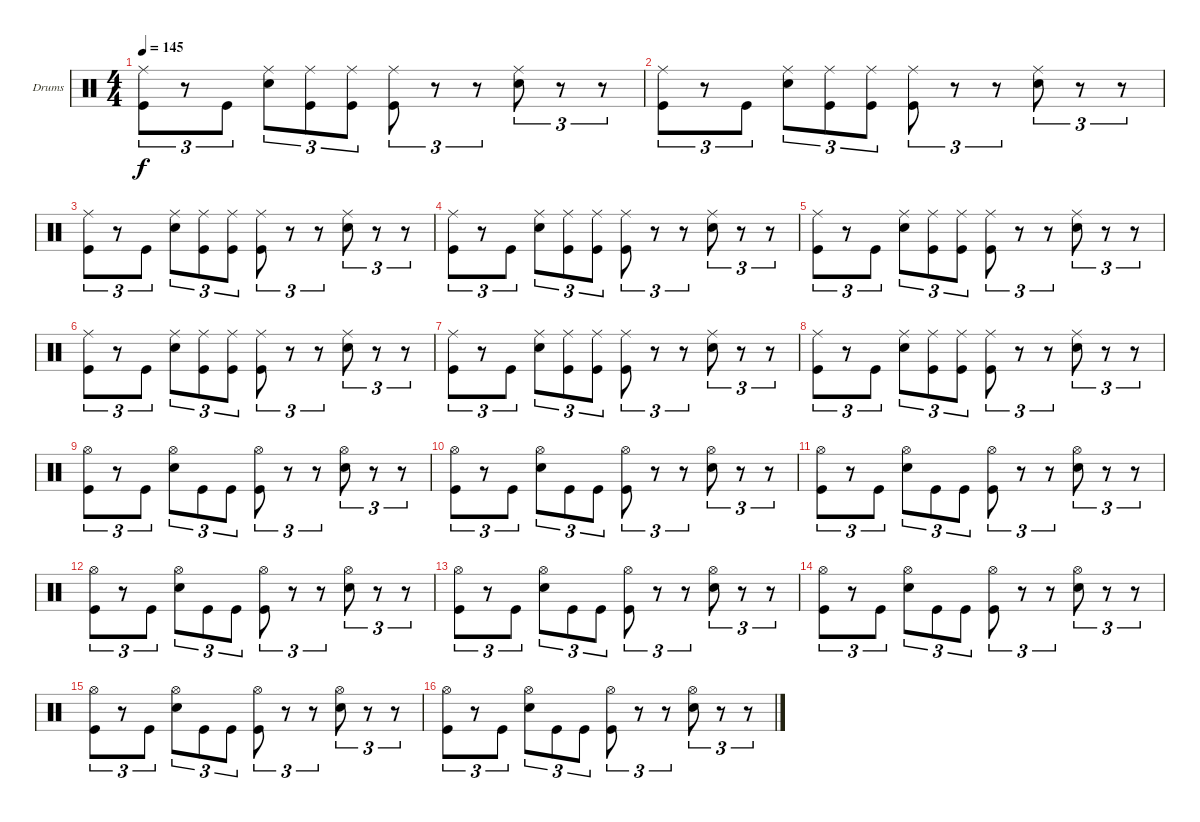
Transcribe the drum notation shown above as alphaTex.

\bracketExtendMode groupsimilarinstruments
\firstSystemTrackNameOrientation horizontal
\otherSystemsTrackNameOrientation horizontal
\track ("FREDRIK ANDERSSON" "Drums") {instrument percussion}
\staff {score}
\articulation defaults
\ts (4 4)
\tempo 145
\clef neutral
\ks c
("Ride (middle)" "Kick (hit)").8{tu (3 2) dy f} r.8{tu (3 2)} "Kick (hit)".8{tu (3 2)} ("Ride (middle)" "Snare (hit) 2").8{tu (3 2)} ("Ride (middle)" "Kick (hit)").8{tu (3 2)} ("Ride (middle)" "Kick (hit)").8{tu (3 2)} ("Ride (middle)" "Kick (hit)").8{tu (3 2)} r.8{tu (3 2)} r.8{tu (3 2)} ("Ride (middle)" "Snare (hit) 2").8{tu (3 2)} r.8{tu (3 2)} r.8{tu (3 2)} |
("Ride (middle)" "Kick (hit)").8{tu (3 2)} r.8{tu (3 2)} "Kick (hit)".8{tu (3 2)} ("Ride (middle)" "Snare (hit) 2").8{tu (3 2)} ("Ride (middle)" "Kick (hit)").8{tu (3 2)} ("Ride (middle)" "Kick (hit)").8{tu (3 2)} ("Ride (middle)" "Kick (hit)").8{tu (3 2)} r.8{tu (3 2)} r.8{tu (3 2)} ("Ride (middle)" "Snare (hit) 2").8{tu (3 2)} r.8{tu (3 2)} r.8{tu (3 2)} |
("Ride (middle)" "Kick (hit)").8{tu (3 2)} r.8{tu (3 2)} "Kick (hit)".8{tu (3 2)} ("Ride (middle)" "Snare (hit) 2").8{tu (3 2)} ("Ride (middle)" "Kick (hit)").8{tu (3 2)} ("Ride (middle)" "Kick (hit)").8{tu (3 2)} ("Ride (middle)" "Kick (hit)").8{tu (3 2)} r.8{tu (3 2)} r.8{tu (3 2)} ("Ride (middle)" "Snare (hit) 2").8{tu (3 2)} r.8{tu (3 2)} r.8{tu (3 2)} |
("Ride (middle)" "Kick (hit)").8{tu (3 2)} r.8{tu (3 2)} "Kick (hit)".8{tu (3 2)} ("Ride (middle)" "Snare (hit) 2").8{tu (3 2)} ("Ride (middle)" "Kick (hit)").8{tu (3 2)} ("Ride (middle)" "Kick (hit)").8{tu (3 2)} ("Ride (middle)" "Kick (hit)").8{tu (3 2)} r.8{tu (3 2)} r.8{tu (3 2)} ("Ride (middle)" "Snare (hit) 2").8{tu (3 2)} r.8{tu (3 2)} r.8{tu (3 2)} |
("Ride (middle)" "Kick (hit)").8{tu (3 2)} r.8{tu (3 2)} "Kick (hit)".8{tu (3 2)} ("Ride (middle)" "Snare (hit) 2").8{tu (3 2)} ("Ride (middle)" "Kick (hit)").8{tu (3 2)} ("Ride (middle)" "Kick (hit)").8{tu (3 2)} ("Ride (middle)" "Kick (hit)").8{tu (3 2)} r.8{tu (3 2)} r.8{tu (3 2)} ("Ride (middle)" "Snare (hit) 2").8{tu (3 2)} r.8{tu (3 2)} r.8{tu (3 2)} |
("Ride (middle)" "Kick (hit)").8{tu (3 2)} r.8{tu (3 2)} "Kick (hit)".8{tu (3 2)} ("Ride (middle)" "Snare (hit) 2").8{tu (3 2)} ("Ride (middle)" "Kick (hit)").8{tu (3 2)} ("Ride (middle)" "Kick (hit)").8{tu (3 2)} ("Ride (middle)" "Kick (hit)").8{tu (3 2)} r.8{tu (3 2)} r.8{tu (3 2)} ("Ride (middle)" "Snare (hit) 2").8{tu (3 2)} r.8{tu (3 2)} r.8{tu (3 2)} |
("Ride (middle)" "Kick (hit)").8{tu (3 2)} r.8{tu (3 2)} "Kick (hit)".8{tu (3 2)} ("Ride (middle)" "Snare (hit) 2").8{tu (3 2)} ("Ride (middle)" "Kick (hit)").8{tu (3 2)} ("Ride (middle)" "Kick (hit)").8{tu (3 2)} ("Ride (middle)" "Kick (hit)").8{tu (3 2)} r.8{tu (3 2)} r.8{tu (3 2)} ("Ride (middle)" "Snare (hit) 2").8{tu (3 2)} r.8{tu (3 2)} r.8{tu (3 2)} |
("Ride (middle)" "Kick (hit)").8{tu (3 2)} r.8{tu (3 2)} "Kick (hit)".8{tu (3 2)} ("Ride (middle)" "Snare (hit) 2").8{tu (3 2)} ("Ride (middle)" "Kick (hit)").8{tu (3 2)} ("Ride (middle)" "Kick (hit)").8{tu (3 2)} ("Ride (middle)" "Kick (hit)").8{tu (3 2)} r.8{tu (3 2)} r.8{tu (3 2)} ("Ride (middle)" "Snare (hit) 2").8{tu (3 2)} r.8{tu (3 2)} r.8{tu (3 2)} |
("Hi-Hat (open)" "Kick (hit)").8{tu (3 2)} r.8{tu (3 2)} "Kick (hit)".8{tu (3 2)} ("Hi-Hat (open)" "Snare (hit) 2").8{tu (3 2)} "Kick (hit)".8{tu (3 2)} "Kick (hit)".8{tu (3 2)} ("Hi-Hat (open)" "Kick (hit)").8{tu (3 2)} r.8{tu (3 2)} r.8{tu (3 2)} ("Hi-Hat (open)" "Snare (hit) 2").8{tu (3 2)} r.8{tu (3 2)} r.8{tu (3 2)} |
("Hi-Hat (open)" "Kick (hit)").8{tu (3 2)} r.8{tu (3 2)} "Kick (hit)".8{tu (3 2)} ("Hi-Hat (open)" "Snare (hit) 2").8{tu (3 2)} "Kick (hit)".8{tu (3 2)} "Kick (hit)".8{tu (3 2)} ("Hi-Hat (open)" "Kick (hit)").8{tu (3 2)} r.8{tu (3 2)} r.8{tu (3 2)} ("Hi-Hat (open)" "Snare (hit) 2").8{tu (3 2)} r.8{tu (3 2)} r.8{tu (3 2)} |
("Hi-Hat (open)" "Kick (hit)").8{tu (3 2)} r.8{tu (3 2)} "Kick (hit)".8{tu (3 2)} ("Hi-Hat (open)" "Snare (hit) 2").8{tu (3 2)} "Kick (hit)".8{tu (3 2)} "Kick (hit)".8{tu (3 2)} ("Hi-Hat (open)" "Kick (hit)").8{tu (3 2)} r.8{tu (3 2)} r.8{tu (3 2)} ("Hi-Hat (open)" "Snare (hit) 2").8{tu (3 2)} r.8{tu (3 2)} r.8{tu (3 2)} |
("Hi-Hat (open)" "Kick (hit)").8{tu (3 2)} r.8{tu (3 2)} "Kick (hit)".8{tu (3 2)} ("Hi-Hat (open)" "Snare (hit) 2").8{tu (3 2)} "Kick (hit)".8{tu (3 2)} "Kick (hit)".8{tu (3 2)} ("Hi-Hat (open)" "Kick (hit)").8{tu (3 2)} r.8{tu (3 2)} r.8{tu (3 2)} ("Hi-Hat (open)" "Snare (hit) 2").8{tu (3 2)} r.8{tu (3 2)} r.8{tu (3 2)} |
("Hi-Hat (open)" "Kick (hit)").8{tu (3 2)} r.8{tu (3 2)} "Kick (hit)".8{tu (3 2)} ("Hi-Hat (open)" "Snare (hit) 2").8{tu (3 2)} "Kick (hit)".8{tu (3 2)} "Kick (hit)".8{tu (3 2)} ("Hi-Hat (open)" "Kick (hit)").8{tu (3 2)} r.8{tu (3 2)} r.8{tu (3 2)} ("Hi-Hat (open)" "Snare (hit) 2").8{tu (3 2)} r.8{tu (3 2)} r.8{tu (3 2)} |
("Hi-Hat (open)" "Kick (hit)").8{tu (3 2)} r.8{tu (3 2)} "Kick (hit)".8{tu (3 2)} ("Hi-Hat (open)" "Snare (hit) 2").8{tu (3 2)} "Kick (hit)".8{tu (3 2)} "Kick (hit)".8{tu (3 2)} ("Hi-Hat (open)" "Kick (hit)").8{tu (3 2)} r.8{tu (3 2)} r.8{tu (3 2)} ("Hi-Hat (open)" "Snare (hit) 2").8{tu (3 2)} r.8{tu (3 2)} r.8{tu (3 2)} |
("Hi-Hat (open)" "Kick (hit)").8{tu (3 2)} r.8{tu (3 2)} "Kick (hit)".8{tu (3 2)} ("Hi-Hat (open)" "Snare (hit) 2").8{tu (3 2)} "Kick (hit)".8{tu (3 2)} "Kick (hit)".8{tu (3 2)} ("Hi-Hat (open)" "Kick (hit)").8{tu (3 2)} r.8{tu (3 2)} r.8{tu (3 2)} ("Hi-Hat (open)" "Snare (hit) 2").8{tu (3 2)} r.8{tu (3 2)} r.8{tu (3 2)} |
("Hi-Hat (open)" "Kick (hit)").8{tu (3 2)} r.8{tu (3 2)} "Kick (hit)".8{tu (3 2)} ("Hi-Hat (open)" "Snare (hit) 2").8{tu (3 2)} "Kick (hit)".8{tu (3 2)} "Kick (hit)".8{tu (3 2)} ("Hi-Hat (open)" "Kick (hit)").8{tu (3 2)} r.8{tu (3 2)} r.8{tu (3 2)} ("Hi-Hat (open)" "Snare (hit) 2").8{tu (3 2)} r.8{tu (3 2)} r.8{tu (3 2)}
